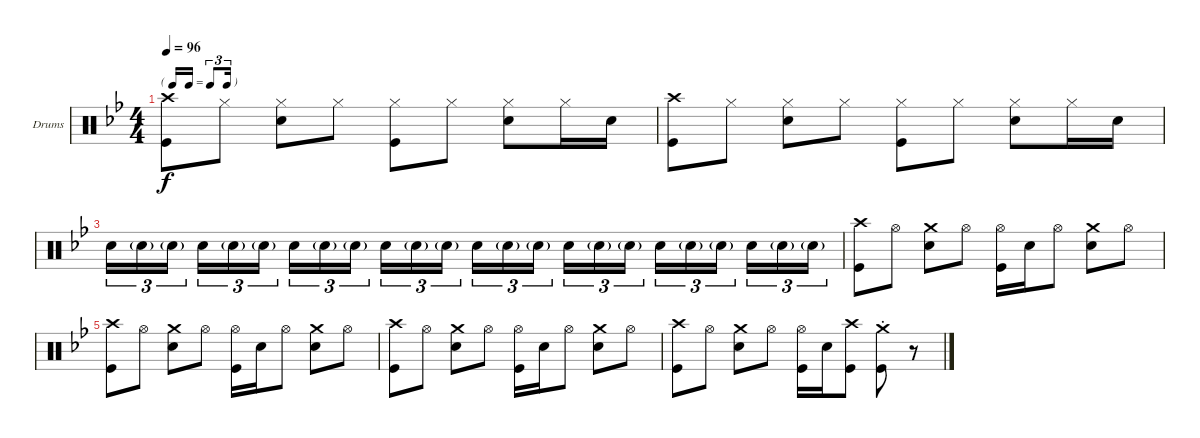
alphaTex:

\bracketExtendMode nobrackets
\firstSystemTrackNameOrientation horizontal
\otherSystemsTrackNameOrientation horizontal
\defaultBarNumberDisplay FirstOfSystem
\track ("Randy Castillo" "Drums") {instrument percussion}
\staff {score}
\articulation defaults
\ts (4 4)
\tf triplet16th
\tempo 96
\clef neutral
\scale
0.523825
\ks bb
("Kick (hit)" "Crash high (hit)").8{dy f} "Hi-Hat (closed)".8 ("Hi-Hat (closed)" "Snare (hit) 2").8 "Hi-Hat (closed)".8 ("Hi-Hat (closed)" "Kick (hit)").8 "Hi-Hat (closed)".8 ("Hi-Hat (closed)" "Snare (hit) 2").8 "Hi-Hat (closed)".16 "Snare (hit) 2".16 |
\scale
0.499203 ("Kick (hit)" "Crash high (hit)").8 "Hi-Hat (closed)".8 ("Hi-Hat (closed)" "Snare (hit) 2").8 "Hi-Hat (closed)".8 ("Hi-Hat (closed)" "Kick (hit)").8 "Hi-Hat (closed)".8 ("Hi-Hat (closed)" "Snare (hit) 2").8 "Hi-Hat (closed)".16 "Snare (hit) 2".16 |
\scale
0.499565 "Snare (hit) 2".16{tu (3 2)} "Snare (hit) 2"{g}.16{tu (3 2)} "Snare (hit) 2"{g}.16{tu (3 2)} "Snare (hit) 2".16{tu (3 2)} "Snare (hit) 2"{g}.16{tu (3 2)} "Snare (hit) 2"{g}.16{tu (3 2)} "Snare (hit) 2".16{tu (3 2)} "Snare (hit) 2"{g}.16{tu (3 2)} "Snare (hit) 2"{g}.16{tu (3 2)} "Snare (hit) 2".16{tu (3 2)} "Snare (hit) 2"{g}.16{tu (3 2)} "Snare (hit) 2"{g}.16{tu (3 2)} "Snare (hit) 2".16{tu (3 2)} "Snare (hit) 2"{g}.16{tu (3 2)} "Snare (hit) 2"{g}.16{tu (3 2)} "Snare (hit) 2".16{tu (3 2)} "Snare (hit) 2"{g}.16{tu (3 2)} "Snare (hit) 2"{g}.16{tu (3 2)} "Snare (hit) 2".16{tu (3 2)} "Snare (hit) 2"{g}.16{tu (3 2)} "Snare (hit) 2"{g}.16{tu (3 2)} "Snare (hit) 2".16{tu (3 2)} "Snare (hit) 2"{g}.16{tu (3 2)} "Snare (hit) 2"{g}.16{tu (3 2)} |
("Kick (hit)" "Crash high (hit)").8 "Hi-Hat (open)".8 ("Snare (hit) 2" "Crash medium (hit)").8 "Hi-Hat (open)".8 ("Kick (hit)" "Hi-Hat (open)").16 "Snare (hit) 2".16 "Hi-Hat (open)".8 ("Snare (hit) 2" "Crash medium (hit)").8 "Hi-Hat (open)".8 |
("Kick (hit)" "Crash high (hit)").8 "Hi-Hat (open)".8 ("Snare (hit) 2" "Crash medium (hit)").8 "Hi-Hat (open)".8 ("Kick (hit)" "Hi-Hat (open)").16 "Snare (hit) 2".16 "Hi-Hat (open)".8 ("Snare (hit) 2" "Crash medium (hit)").8 "Hi-Hat (open)".8 |
\scale
0.503228 ("Kick (hit)" "Crash high (hit)").8 "Hi-Hat (open)".8 ("Snare (hit) 2" "Crash medium (hit)").8 "Hi-Hat (open)".8 ("Kick (hit)" "Hi-Hat (open)").16 "Snare (hit) 2".16 "Hi-Hat (open)".8 ("Snare (hit) 2" "Crash medium (hit)").8 "Hi-Hat (open)".8 |
\scale
0.496748 ("Kick (hit)" "Crash high (hit)").8 "Hi-Hat (open)".8 ("Snare (hit) 2" "Crash medium (hit)").8 "Hi-Hat (open)".8 ("Kick (hit)" "Hi-Hat (open)").16 "Snare (hit) 2".16 ("Kick (hit)" "Crash high (hit)").8 ("Crash medium (hit)"{st} "Kick (hit)"{st}).8 r.8
